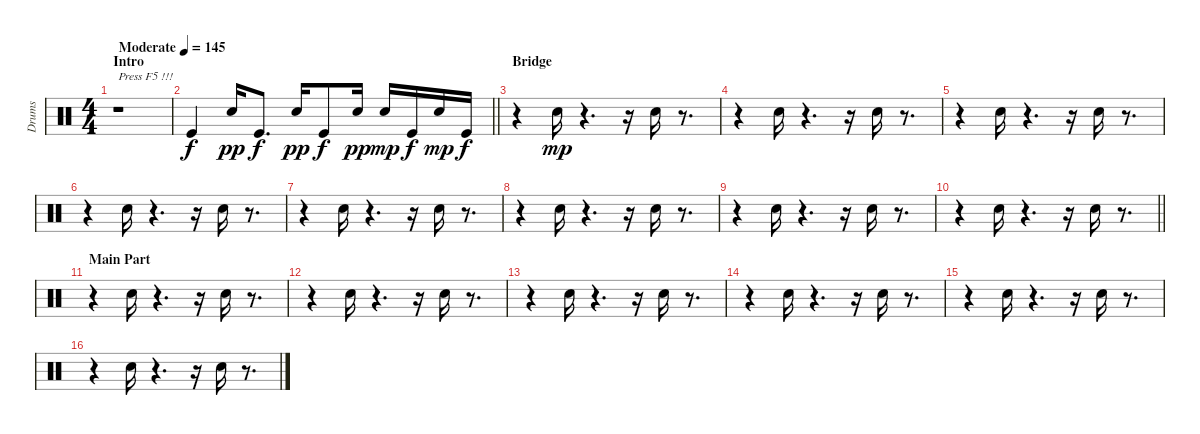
\track ("Drums" "Drums") {instrument percussion}
\staff {score}
\articulation defaults
\ts (4 4)
\section ("" "Intro")
\tempo (145 "Moderate")
\clef neutral
\ks c
r.1{txt "Press F5 !!!" dy f} |
\barLineRight lightlight "Kick (hit)".4 "Snare (hit) 2".16{dy pp} "Kick (hit)".8{d dy f} "Snare (hit) 2".16{dy pp} "Kick (hit)".8{dy f} "Snare (hit) 2".16{dy pp} "Snare (hit) 2".16{dy mp} "Kick (hit)".16{dy f} "Snare (hit) 2".16{dy mp} "Kick (hit)".16{dy f}
|
\section ("" "Bridge")
r.4 "Snare (hit) 2".16{dy mp} r.4{d} r.16 "Snare (hit) 2".16 r.8{d} |
r.4 "Snare (hit) 2".16 r.4{d} r.16 "Snare (hit) 2".16 r.8{d} |
r.4 "Snare (hit) 2".16 r.4{d} r.16 "Snare (hit) 2".16 r.8{d} |
r.4 "Snare (hit) 2".16 r.4{d} r.16 "Snare (hit) 2".16 r.8{d} |
r.4 "Snare (hit) 2".16 r.4{d} r.16 "Snare (hit) 2".16 r.8{d} |
r.4 "Snare (hit) 2".16 r.4{d} r.16 "Snare (hit) 2".16 r.8{d} |
r.4 "Snare (hit) 2".16 r.4{d} r.16 "Snare (hit) 2".16 r.8{d} |
\barLineRight lightlight
r.4 "Snare (hit) 2".16 r.4{d} r.16 "Snare (hit) 2".16 r.8{d} |
\section ("" "Main Part")
r.4 "Snare (hit) 2".16 r.4{d} r.16 "Snare (hit) 2".16 r.8{d} |
r.4 "Snare (hit) 2".16 r.4{d} r.16 "Snare (hit) 2".16 r.8{d} |
r.4 "Snare (hit) 2".16 r.4{d} r.16 "Snare (hit) 2".16 r.8{d} |
r.4 "Snare (hit) 2".16 r.4{d} r.16 "Snare (hit) 2".16 r.8{d} |
r.4 "Snare (hit) 2".16 r.4{d} r.16 "Snare (hit) 2".16 r.8{d} |
r.4 "Snare (hit) 2".16 r.4{d} r.16 "Snare (hit) 2".16 r.8{d}
